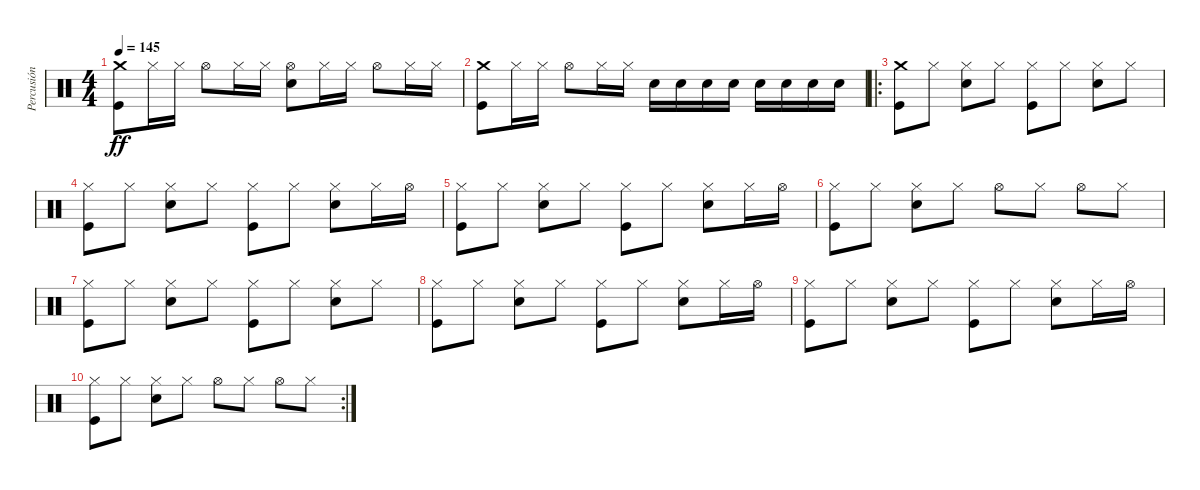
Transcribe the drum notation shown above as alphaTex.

\track ("Percusión" "Percusión") {instrument percussion}
\staff {score}
\articulation defaults
\ts (4 4)
\tempo 145
\clef neutral
\ks c
("Crash medium (hit)" "Kick (hit)").8{dy ff} "Hi-Hat (closed)".16 "Hi-Hat (closed)".16 "Hi-Hat (open)".8 "Hi-Hat (closed)".16 "Hi-Hat (closed)".16 ("Hi-Hat (open)" "Electric Snare (hit)").8 "Hi-Hat (closed)".16 "Hi-Hat (closed)".16 "Hi-Hat (open)".8 "Hi-Hat (closed)".16 "Hi-Hat (closed)".16 |
("Crash medium (hit)" "Kick (hit)").8 "Hi-Hat (closed)".16 "Hi-Hat (closed)".16 "Hi-Hat (open)".8 "Hi-Hat (closed)".16 "Hi-Hat (closed)".16 "Electric Snare (hit)".16 "Electric Snare (hit)".16 "Electric Snare (hit)".16 "Electric Snare (hit)".16 "Electric Snare (hit)".16 "Electric Snare (hit)".16 "Electric Snare (hit)".16 "Electric Snare (hit)".16 |
\ro
("Crash medium (hit)" "Kick (hit)").8 "Hi-Hat (closed)".8 ("Hi-Hat (closed)" "Electric Snare (hit)").8 "Hi-Hat (closed)".8 ("Hi-Hat (closed)" "Kick (hit)").8 "Hi-Hat (closed)".8 ("Hi-Hat (closed)" "Electric Snare (hit)").8 "Hi-Hat (closed)".8 |
("Hi-Hat (closed)" "Kick (hit)").8 "Hi-Hat (closed)".8 ("Hi-Hat (closed)" "Electric Snare (hit)").8 "Hi-Hat (closed)".8 ("Hi-Hat (closed)" "Kick (hit)").8 "Hi-Hat (closed)".8 ("Hi-Hat (closed)" "Electric Snare (hit)").8 "Hi-Hat (closed)".16 "Hi-Hat (open)".16 |
("Hi-Hat (closed)" "Kick (hit)").8 "Hi-Hat (closed)".8 ("Hi-Hat (closed)" "Electric Snare (hit)").8 "Hi-Hat (closed)".8 ("Hi-Hat (closed)" "Kick (hit)").8 "Hi-Hat (closed)".8 ("Hi-Hat (closed)" "Electric Snare (hit)").8 "Hi-Hat (closed)".16 "Hi-Hat (open)".16 |
("Hi-Hat (closed)" "Kick (hit)").8 "Hi-Hat (closed)".8 ("Hi-Hat (closed)" "Electric Snare (hit)").8 "Hi-Hat (closed)".8 "Hi-Hat (open)".8 "Hi-Hat (closed)".8 "Hi-Hat (open)".8 "Hi-Hat (closed)".8 |
("Hi-Hat (closed)" "Kick (hit)").8 "Hi-Hat (closed)".8 ("Hi-Hat (closed)" "Electric Snare (hit)").8 "Hi-Hat (closed)".8 ("Hi-Hat (closed)" "Kick (hit)").8 "Hi-Hat (closed)".8 ("Hi-Hat (closed)" "Electric Snare (hit)").8 "Hi-Hat (closed)".8 |
("Hi-Hat (closed)" "Kick (hit)").8 "Hi-Hat (closed)".8 ("Hi-Hat (closed)" "Electric Snare (hit)").8 "Hi-Hat (closed)".8 ("Hi-Hat (closed)" "Kick (hit)").8 "Hi-Hat (closed)".8 ("Hi-Hat (closed)" "Electric Snare (hit)").8 "Hi-Hat (closed)".16 "Hi-Hat (open)".16 |
("Hi-Hat (closed)" "Kick (hit)").8 "Hi-Hat (closed)".8 ("Hi-Hat (closed)" "Electric Snare (hit)").8 "Hi-Hat (closed)".8 ("Hi-Hat (closed)" "Kick (hit)").8 "Hi-Hat (closed)".8 ("Hi-Hat (closed)" "Electric Snare (hit)").8 "Hi-Hat (closed)".16 "Hi-Hat (open)".16 |
\rc 2
("Hi-Hat (closed)" "Kick (hit)").8 "Hi-Hat (closed)".8 ("Hi-Hat (closed)" "Electric Snare (hit)").8 "Hi-Hat (closed)".8 "Hi-Hat (open)".8 "Hi-Hat (closed)".8 "Hi-Hat (open)".8 "Hi-Hat (closed)".8
